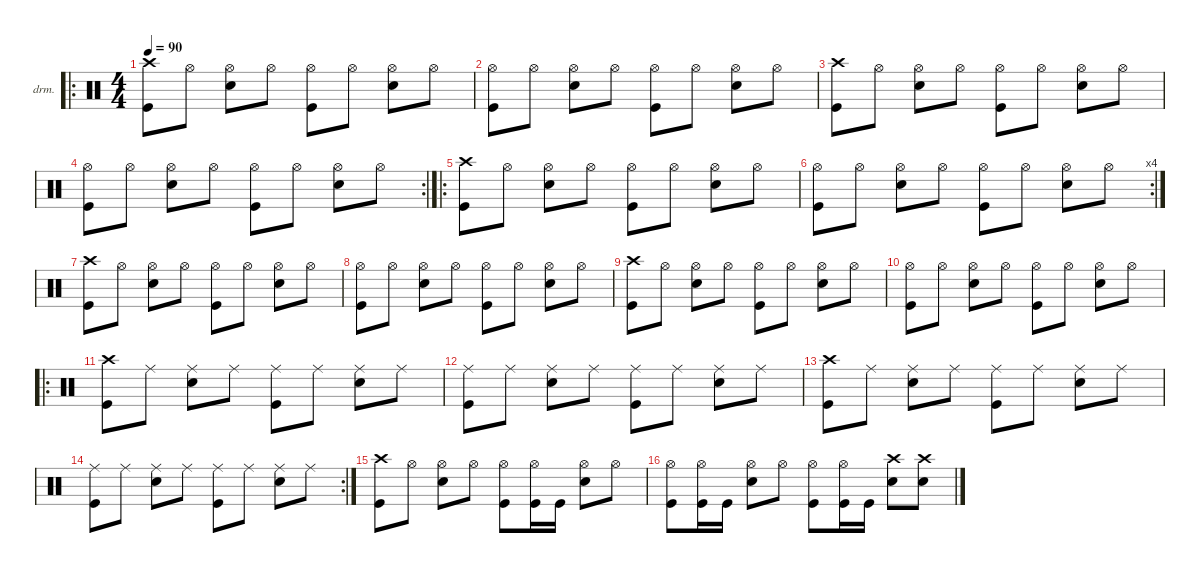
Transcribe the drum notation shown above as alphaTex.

\defaultSystemsLayout 4
\hideDynamics
\bracketExtendMode nobrackets
\firstSystemTrackNameOrientation horizontal
\otherSystemsTrackNameOrientation horizontal
\track ("Percussion" "drm.") {instrument percussion}
\staff {score}
\articulation defaults
\ro
\ts (4 4)
\tempo 90
\clef neutral
\ks c
("Crash high (hit)" "Kick (hit)").8{dy f beam Down} "Hi-Hat (open)".8{beam Down} ("Hi-Hat (open)" "Snare (hit) 2").8{beam Down} "Hi-Hat (open)".8{beam Down} ("Hi-Hat (open)" "Kick (hit)").8{beam Down} "Hi-Hat (open)".8{beam Down} ("Hi-Hat (open)" "Snare (hit) 2").8{beam Down} "Hi-Hat (open)".8{beam Down} |
("Hi-Hat (open)" "Kick (hit)").8{beam Down} "Hi-Hat (open)".8{beam Down} ("Hi-Hat (open)" "Snare (hit) 2").8{beam Down} "Hi-Hat (open)".8{beam Down} ("Hi-Hat (open)" "Kick (hit)").8{beam Down} "Hi-Hat (open)".8{beam Down} ("Hi-Hat (open)" "Snare (hit) 2").8{beam Down} "Hi-Hat (open)".8{beam Down} |
("Crash high (hit)" "Kick (hit)").8{beam Down} "Hi-Hat (open)".8{beam Down} ("Hi-Hat (open)" "Snare (hit) 2").8{beam Down} "Hi-Hat (open)".8{beam Down} ("Hi-Hat (open)" "Kick (hit)").8{beam Down} "Hi-Hat (open)".8{beam Down} ("Hi-Hat (open)" "Snare (hit) 2").8{beam Down} "Hi-Hat (open)".8{beam Down} |
\rc 2
("Hi-Hat (open)" "Kick (hit)").8{beam Down} "Hi-Hat (open)".8{beam Down} ("Hi-Hat (open)" "Snare (hit) 2").8{beam Down} "Hi-Hat (open)".8{beam Down} ("Hi-Hat (open)" "Kick (hit)").8{beam Down} "Hi-Hat (open)".8{beam Down} ("Hi-Hat (open)" "Snare (hit) 2").8{beam Down} "Hi-Hat (open)".8{beam Down} |
\ro
("Crash high (hit)" "Kick (hit)").8{beam Down} "Hi-Hat (open)".8{beam Down} ("Hi-Hat (open)" "Snare (hit) 2").8{beam Down} "Hi-Hat (open)".8{beam Down} ("Hi-Hat (open)" "Kick (hit)").8{beam Down} "Hi-Hat (open)".8{beam Down} ("Hi-Hat (open)" "Snare (hit) 2").8{beam Down} "Hi-Hat (open)".8{beam Down} |
\rc 4
("Hi-Hat (open)" "Kick (hit)").8{beam Down} "Hi-Hat (open)".8{beam Down} ("Hi-Hat (open)" "Snare (hit) 2").8{beam Down} "Hi-Hat (open)".8{beam Down} ("Hi-Hat (open)" "Kick (hit)").8{beam Down} "Hi-Hat (open)".8{beam Down} ("Hi-Hat (open)" "Snare (hit) 2").8{beam Down} "Hi-Hat (open)".8{beam Down} |
("Crash high (hit)" "Kick (hit)").8{beam Down} "Hi-Hat (open)".8{beam Down} ("Hi-Hat (open)" "Snare (hit) 2").8{beam Down} "Hi-Hat (open)".8{beam Down} ("Hi-Hat (open)" "Kick (hit)").8{beam Down} "Hi-Hat (open)".8{beam Down} ("Hi-Hat (open)" "Snare (hit) 2").8{beam Down} "Hi-Hat (open)".8{beam Down} |
("Hi-Hat (open)" "Kick (hit)").8{beam Down} "Hi-Hat (open)".8{beam Down} ("Hi-Hat (open)" "Snare (hit) 2").8{beam Down} "Hi-Hat (open)".8{beam Down} ("Hi-Hat (open)" "Kick (hit)").8{beam Down} "Hi-Hat (open)".8{beam Down} ("Hi-Hat (open)" "Snare (hit) 2").8{beam Down} "Hi-Hat (open)".8{beam Down} |
("Crash high (hit)" "Kick (hit)").8{beam Down} "Hi-Hat (open)".8{beam Down} ("Hi-Hat (open)" "Snare (hit) 2").8{beam Down} "Hi-Hat (open)".8{beam Down} ("Hi-Hat (open)" "Kick (hit)").8{beam Down} "Hi-Hat (open)".8{beam Down} ("Hi-Hat (open)" "Snare (hit) 2").8{beam Down} "Hi-Hat (open)".8{beam Down} |
("Hi-Hat (open)" "Kick (hit)").8{beam Down} "Hi-Hat (open)".8{beam Down} ("Hi-Hat (open)" "Snare (hit) 2").8{beam Down} "Hi-Hat (open)".8{beam Down} ("Hi-Hat (open)" "Kick (hit)").8{beam Down} "Hi-Hat (open)".8{beam Down} ("Hi-Hat (open)" "Snare (hit) 2").8{beam Down} "Hi-Hat (open)".8{beam Down} |
\ro
("Crash high (hit)" "Kick (hit)").8{beam Down} "Ride (middle)".8{beam Down} ("Ride (middle)" "Snare (hit) 2").8{beam Down} "Ride (middle)".8{beam Down} ("Ride (middle)" "Kick (hit)").8{beam Down} "Ride (middle)".8{beam Down} ("Ride (middle)" "Snare (hit) 2").8{beam Down} "Ride (middle)".8{beam Down} |
("Ride (middle)" "Kick (hit)").8{beam Down} "Ride (middle)".8{beam Down} ("Ride (middle)" "Snare (hit) 2").8{beam Down} "Ride (middle)".8{beam Down} ("Ride (middle)" "Kick (hit)").8{beam Down} "Ride (middle)".8{beam Down} ("Ride (middle)" "Snare (hit) 2").8{beam Down} "Ride (middle)".8{beam Down} |
("Crash high (hit)" "Kick (hit)").8{beam Down} "Ride (middle)".8{beam Down} ("Ride (middle)" "Snare (hit) 2").8{beam Down} "Ride (middle)".8{beam Down} ("Ride (middle)" "Kick (hit)").8{beam Down} "Ride (middle)".8{beam Down} ("Ride (middle)" "Snare (hit) 2").8{beam Down} "Ride (middle)".8{beam Down} |
\rc 2
("Ride (middle)" "Kick (hit)").8{beam Down} "Ride (middle)".8{beam Down} ("Ride (middle)" "Snare (hit) 2").8{beam Down} "Ride (middle)".8{beam Down} ("Ride (middle)" "Kick (hit)").8{beam Down} "Ride (middle)".8{beam Down} ("Ride (middle)" "Snare (hit) 2").8{beam Down} "Ride (middle)".8{beam Down} |
("Crash high (hit)" "Kick (hit)").8{beam Down} "Hi-Hat (open)".8{beam Down} ("Hi-Hat (open)" "Snare (hit) 2").8{beam Down} "Hi-Hat (open)".8{beam Down} ("Hi-Hat (open)" "Kick (hit)").8{beam Down} ("Hi-Hat (open)" "Kick (hit)").16{beam Down} "Kick (hit)".16{beam Down} ("Hi-Hat (open)" "Snare (hit) 2").8{beam Down} "Hi-Hat (open)".8{beam Down} |
("Hi-Hat (open)" "Kick (hit)").8{beam Down} ("Hi-Hat (open)" "Kick (hit)").16{beam Down} "Kick (hit)".16{beam Down} ("Hi-Hat (open)" "Snare (hit) 2").8{beam Down} "Hi-Hat (open)".8{beam Down} ("Hi-Hat (open)" "Kick (hit)").8{beam Down} ("Hi-Hat (open)" "Kick (hit)").16{beam Down} "Kick (hit)".16{beam Down} ("Crash high (hit)" "Snare (hit) 2").8{beam Down} ("Crash high (hit)" "Snare (hit) 2").8{beam Down}
